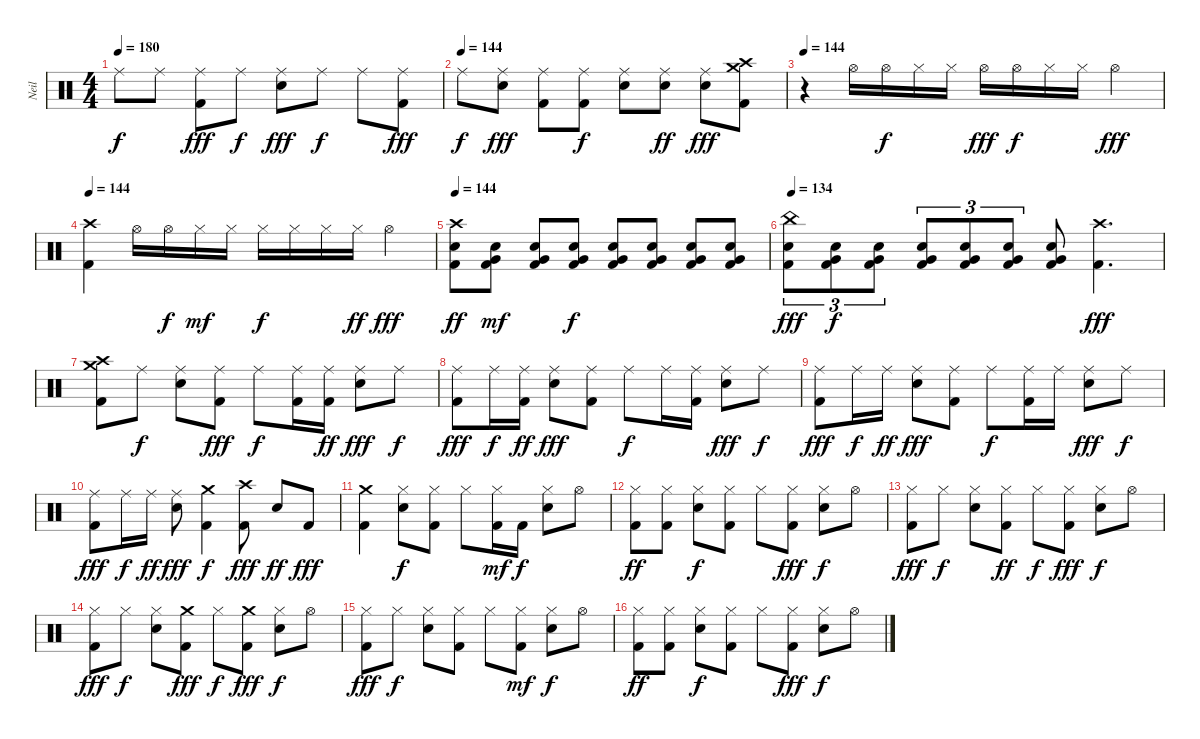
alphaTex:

\track ("Neil" "Neil") {instrument percussion}
\staff {score}
\articulation defaults
\ts (4 4)
\tempo 180
\clef neutral
\ks c "Ride (middle)".8{dy f} "Ride (middle)".8
("Kick (hit) 2" "Ride (middle)").8{dy fff} "Ride (middle)".8{dy f} ("Snare (hit) 2" "Ride (middle)").8{dy fff} "Ride (middle)".8{dy f} "Ride (middle)".8 ("Kick (hit) 2" "Ride (middle)").8{dy fff} |
\tempo (144)
"Ride (middle)".8{dy f} ("Snare (hit) 2" "Ride (middle)").8{dy fff} ("Kick (hit) 2" "Ride (middle)").8 ("Kick (hit) 2" "Ride (middle)").8{dy f} ("Snare (hit) 2" "Ride (middle)").8 ("Snare (hit) 2" "Ride (middle)").8{dy ff} ("Snare (hit) 2" "Ride (middle)").8{dy fff} ("Crash medium (hit)" "Crash high (hit)" "Kick (hit) 2").8 |
\tempo 144
r.4 "Hi-Hat (open)".16 "Hi-Hat (open)".16{dy f} "Hi-Hat (closed)".16 "Hi-Hat (closed)".16 "Hi-Hat (open)".16{dy fff} "Hi-Hat (open)".16{dy f} "Hi-Hat (closed)".16 "Hi-Hat (closed)".16 "Hi-Hat (open)".4{dy fff} |
\tempo 144
("Crash high (hit)" "Kick (hit) 2").4 "Hi-Hat (open)".16 "Hi-Hat (open)".16{dy f} "Hi-Hat (closed)".16{dy mf} "Hi-Hat (closed)".16 "Hi-Hat (closed)".16{dy f} "Hi-Hat (closed)".16 "Hi-Hat (closed)".16 "Hi-Hat (closed)".16{dy ff} "Hi-Hat (open)".4{dy fff} |
\tempo 144
("Snare (hit) 2" "Crash high (hit)" "Kick (hit) 2").8{dy ff} ("Kick (hit) 2" "Very Low Tom (hit)" "Snare (hit) 2").8{dy mf} ("Kick (hit) 2" "Snare (hit) 2" "Very Low Tom (hit)").8 ("Kick (hit) 2" "Snare (hit) 2" "Very Low Tom (hit)").8{dy f} ("Kick (hit) 2" "Snare (hit) 2" "Very Low Tom (hit)").8 ("Kick (hit) 2" "Snare (hit) 2" "Very Low Tom (hit)").8 ("Kick (hit) 2" "Snare (hit) 2" "Very Low Tom (hit)").8 ("Kick (hit) 2" "Snare (hit) 2" "Very Low Tom (hit)").8 |
\tempo 134
("Snare (hit) 2" "China (hit)" "Kick (hit) 2").8{tu (3 2) dy fff} ("Kick (hit) 2" "Snare (hit) 2" "Very Low Tom (hit)").8{tu (3 2) dy f} ("Kick (hit) 2" "Snare (hit) 2" "Very Low Tom (hit)").8{tu (3 2)} ("Kick (hit) 2" "Snare (hit) 2" "Very Low Tom (hit)").8{tu (3 2)} ("Kick (hit) 2" "Snare (hit) 2" "Very Low Tom (hit)").8{tu (3 2)} ("Kick (hit) 2" "Snare (hit) 2" "Very Low Tom (hit)").8{tu (3 2)} ("Kick (hit) 2" "Snare (hit) 2" "Very Low Tom (hit)").8 ("Crash high (hit)" "Kick (hit) 2").4{d dy fff} |
("Crash medium (hit)" "Crash high (hit)" "Kick (hit) 2").8 "Ride (middle)".8{dy f} ("Ride (middle)" "Snare (hit) 2").8 ("Ride (middle)" "Kick (hit) 2").8{dy fff} "Ride (middle)".8{dy f} ("Ride (middle)" "Kick (hit) 2").16 ("Ride (middle)" "Kick (hit) 2").16{dy ff} ("Ride (middle)" "Snare (hit) 2").8{dy fff} "Ride (middle)".8{dy f} |
("Kick (hit) 2" "Ride (middle)").8{dy fff} "Ride (middle)".16{dy f} ("Kick (hit) 2" "Ride (middle)").16{dy ff} ("Snare (hit) 2" "Ride (middle)").8{dy fff} ("Ride (middle)" "Kick (hit) 2").8 "Ride (middle)".8{dy f} "Ride (middle)".16 ("Ride (middle)" "Kick (hit) 2").16 ("Ride (middle)" "Snare (hit) 2").8{dy fff} "Ride (middle)".8{dy f} |
("Kick (hit) 2" "Ride (middle)").8{dy fff} "Ride (middle)".16{dy f} "Ride (middle)".16{dy ff} ("Snare (hit) 2" "Ride (middle)").8{dy fff} ("Ride (middle)" "Kick (hit) 2").8 "Ride (middle)".8{dy f} ("Kick (hit) 2" "Ride (middle)").16 "Ride (middle)".16 ("Ride (middle)" "Snare (hit) 2").8{dy fff} "Ride (middle)".8{dy f} |
("Ride (middle)" "Kick (hit) 2").8{dy fff} "Ride (middle)".16{dy f} "Ride (middle)".16{dy ff} ("Snare (hit) 2" "Ride (middle)").8{dy fff} ("Crash medium (hit)" "Kick (hit) 2").4{dy f} ("Kick (hit) 2" "Crash high (hit)").8{dy fff} "Snare (hit) 2".8{dy ff} "Kick (hit) 2".8{dy fff} |
("Crash medium (hit)" "Kick (hit) 2").4{volume 16 balance 8} ("Hi-Hat (closed)" "Snare (hit) 2").8{dy f} ("Hi-Hat (closed)" "Kick (hit) 2").8 "Hi-Hat (closed)".8 ("Hi-Hat (closed)" "Kick (hit) 2").16{dy mf} "Kick (hit) 2".16{dy f} ("Hi-Hat (closed)" "Snare (hit) 2").8 "Hi-Hat (open)".8 |
("Hi-Hat (closed)" "Kick (hit) 2").8{dy ff} ("Hi-Hat (closed)" "Kick (hit) 2").8 ("Hi-Hat (closed)" "Snare (hit) 2").8{dy f} ("Hi-Hat (closed)" "Kick (hit) 2").8 "Hi-Hat (closed)".8 ("Hi-Hat (closed)" "Kick (hit) 2").8{dy fff} ("Hi-Hat (closed)" "Snare (hit) 2").8{dy f} "Hi-Hat (open)".8 |
("Hi-Hat (closed)" "Kick (hit) 2").8{dy fff} "Hi-Hat (closed)".8{dy f} ("Hi-Hat (closed)" "Snare (hit) 2").8 ("Hi-Hat (closed)" "Kick (hit) 2").8{dy ff} "Hi-Hat (closed)".8{dy f} ("Hi-Hat (closed)" "Kick (hit) 2").8{dy fff} ("Hi-Hat (closed)" "Snare (hit) 2").8{dy f} "Hi-Hat (open)".8 |
("Hi-Hat (closed)" "Kick (hit) 2").8{dy fff} "Hi-Hat (closed)".8{dy f} ("Hi-Hat (closed)" "Snare (hit) 2").8 ("Crash medium (hit)" "Kick (hit) 2").8{dy fff} "Hi-Hat (closed)".8{dy f} ("Crash medium (hit)" "Kick (hit) 2").8{dy fff} ("Hi-Hat (closed)" "Snare (hit) 2").8{dy f} "Hi-Hat (open)".8 |
("Hi-Hat (closed)" "Kick (hit) 2").8{dy fff} "Hi-Hat (closed)".8{dy f} ("Hi-Hat (closed)" "Snare (hit) 2").8 ("Hi-Hat (closed)" "Kick (hit) 2").8 "Hi-Hat (closed)".8 ("Hi-Hat (closed)" "Kick (hit) 2").8{dy mf} ("Hi-Hat (closed)" "Snare (hit) 2").8{dy f} "Hi-Hat (open)".8 |
("Hi-Hat (closed)" "Kick (hit) 2").8{dy ff} ("Hi-Hat (closed)" "Kick (hit) 2").8 ("Hi-Hat (closed)" "Snare (hit) 2").8{dy f} ("Hi-Hat (closed)" "Kick (hit) 2").8 "Hi-Hat (closed)".8 ("Hi-Hat (closed)" "Kick (hit) 2").8{dy fff} ("Hi-Hat (closed)" "Snare (hit) 2").8{dy f} "Hi-Hat (open)".8
